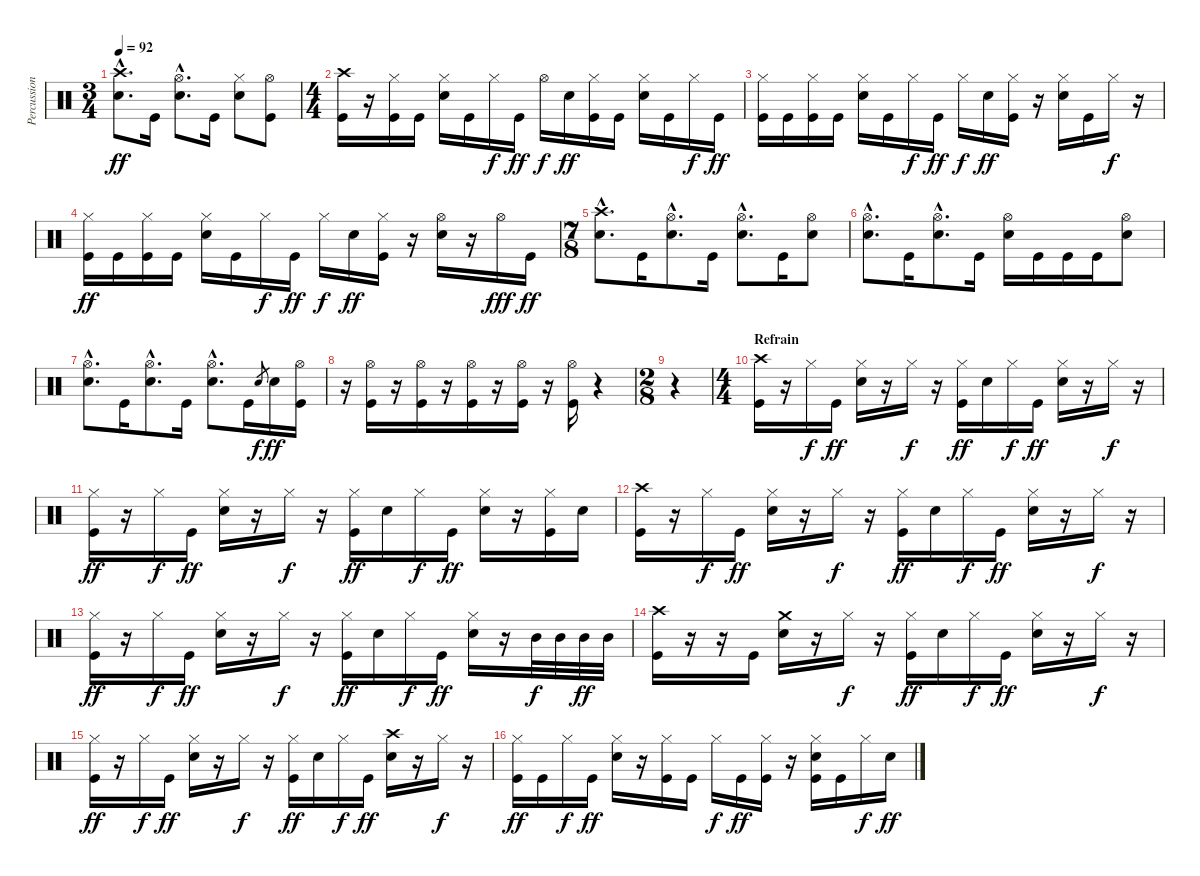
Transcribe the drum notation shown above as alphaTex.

\track ("Percussions" "Percussion") {instrument percussion}
\staff {score}
\articulation defaults
\ts (3 4)
\tempo 92
\clef neutral
\ks c
("Crash high (hit)"{hac} "Snare (hit) 2"{hac}).8{d dy ff} "Kick (hit)".16 ("Hi-Hat (open)"{hac} "Snare (hit) 2"{hac}).8{d} "Kick (hit)".16 ("Hi-Hat (closed)" "Snare (hit) 2").8 ("Hi-Hat (open)" "Kick (hit)").8 |
\ts (4 4)
("Crash high (hit)" "Kick (hit)").16 r.16 ("Hi-Hat (closed)" "Kick (hit)").16 "Kick (hit)".16 ("Hi-Hat (closed)" "Snare (hit) 2").16 "Kick (hit)".16 "Hi-Hat (closed)".16{dy f} "Kick (hit)".16{dy ff} "Hi-Hat (open)".16{dy f} "Snare (hit) 2".16{dy ff} ("Hi-Hat (closed)" "Kick (hit)").16 "Kick (hit)".16 ("Hi-Hat (closed)" "Snare (hit) 2").16 "Kick (hit)".16 "Hi-Hat (closed)".16{dy f} "Kick (hit)".16{dy ff} |
("Hi-Hat (closed)" "Kick (hit)").16 "Kick (hit)".16 ("Hi-Hat (closed)" "Kick (hit)").16 "Kick (hit)".16 ("Hi-Hat (closed)" "Snare (hit) 2").16 "Kick (hit)".16 "Hi-Hat (closed)".16{dy f} "Kick (hit)".16{dy ff} "Hi-Hat (closed)".16{dy f} "Snare (hit) 2".16{dy ff} ("Hi-Hat (closed)" "Kick (hit)").16 r.16 ("Hi-Hat (closed)" "Snare (hit) 2").16 "Kick (hit)".16 "Hi-Hat (closed)".16{dy f} r.16 |
("Hi-Hat (closed)" "Kick (hit)").16{dy ff} "Kick (hit)".16 ("Hi-Hat (closed)" "Kick (hit)").16 "Kick (hit)".16 ("Hi-Hat (closed)" "Snare (hit) 2").16 "Kick (hit)".16 "Hi-Hat (closed)".16{dy f} "Kick (hit)".16{dy ff} "Hi-Hat (closed)".16{dy f} "Snare (hit) 2".16{dy ff} ("Hi-Hat (closed)" "Kick (hit)").16 r.16 ("Hi-Hat (open)" "Snare (hit) 2").16 r.16 "Hi-Hat (open)".16{dy fff} "Kick (hit)".16{dy ff} |
\ts (7 8)
("Crash high (hit)"{hac} "Snare (hit) 2"{hac}).8{d} "Kick (hit)".16 ("Hi-Hat (open)"{hac} "Snare (hit) 2"{hac}).8{d} "Kick (hit)".16 ("Hi-Hat (open)"{hac} "Snare (hit) 2"{hac}).8{d} "Kick (hit)".16 ("Hi-Hat (open)" "Snare (hit) 2").8 |
("Hi-Hat (open)"{hac} "Snare (hit) 2"{hac}).8{d} "Kick (hit)".16 ("Hi-Hat (open)"{hac} "Snare (hit) 2"{hac}).8{d} "Kick (hit)".16 ("Hi-Hat (open)" "Snare (hit) 2").16 "Kick (hit)".16 "Kick (hit)".16 "Kick (hit)".16 ("Hi-Hat (open)" "Snare (hit) 2").8 |
("Hi-Hat (open)"{hac} "Snare (hit) 2"{hac}).8{d} "Kick (hit)".16 ("Hi-Hat (open)"{hac} "Snare (hit) 2"{hac}).8{d} "Kick (hit)".16 ("Hi-Hat (open)"{hac} "Snare (hit) 2"{hac}).8{d} "Kick (hit)".16 "Snare (hit) 2".8{gr dy f} "Snare (hit) 2".16{dy ff} ("Hi-Hat (open)" "Kick (hit)").16 |
r.16 ("Hi-Hat (open)" "Kick (hit)").16 r.16 ("Hi-Hat (open)" "Kick (hit)").16 r.16 ("Hi-Hat (open)" "Kick (hit)").16 r.16 ("Hi-Hat (open)" "Kick (hit)").16 r.16 ("Hi-Hat (open)" "Kick (hit)").16 r.4 |
\ts (2 8)
r.4 |
\ts (4 4)
\section ("" "Refrain")
("Crash high (hit)" "Kick (hit)").16 r.16 "Hi-Hat (closed)".16{dy f} "Kick (hit)".16{dy ff} ("Hi-Hat (closed)" "Snare (hit) 2").16 r.16 "Hi-Hat (closed)".16{dy f} r.16 ("Hi-Hat (closed)" "Kick (hit)").16{dy ff} "Snare (hit) 2".16 "Hi-Hat (closed)".16{dy f} "Kick (hit)".16{dy ff} ("Hi-Hat (closed)" "Snare (hit) 2").16 r.16 "Hi-Hat (closed)".16{dy f} r.16 |
("Hi-Hat (closed)" "Kick (hit)").16{dy ff} r.16 "Hi-Hat (closed)".16{dy f} "Kick (hit)".16{dy ff} ("Hi-Hat (closed)" "Snare (hit) 2").16 r.16 "Hi-Hat (closed)".16{dy f} r.16 ("Hi-Hat (closed)" "Kick (hit)").16{dy ff} "Snare (hit) 2".16 "Hi-Hat (closed)".16{dy f} "Kick (hit)".16{dy ff} ("Hi-Hat (closed)" "Snare (hit) 2").16 r.16 ("Hi-Hat (closed)" "Kick (hit)").16 "Snare (hit) 2".16 |
("Crash high (hit)" "Kick (hit)").16 r.16 "Hi-Hat (closed)".16{dy f} "Kick (hit)".16{dy ff} ("Hi-Hat (closed)" "Snare (hit) 2").16 r.16 "Hi-Hat (closed)".16{dy f} r.16 ("Hi-Hat (closed)" "Kick (hit)").16{dy ff} "Snare (hit) 2".16 "Hi-Hat (closed)".16{dy f} "Kick (hit)".16{dy ff} ("Hi-Hat (closed)" "Snare (hit) 2").16 r.16 "Hi-Hat (closed)".16{dy f} r.16 |
("Hi-Hat (closed)" "Kick (hit)").16{dy ff} r.16 "Hi-Hat (closed)".16{dy f} "Kick (hit)".16{dy ff} ("Hi-Hat (closed)" "Snare (hit) 2").16 r.16 "Hi-Hat (closed)".16{dy f} r.16 ("Hi-Hat (closed)" "Kick (hit)").16{dy ff} "Snare (hit) 2".16 "Hi-Hat (closed)".16{dy f} "Kick (hit)".16{dy ff} ("Hi-Hat (closed)" "Snare (hit) 2").16 r.16 "Mid Tom (hit)".32{dy f} "Mid Tom (hit)".32 "Mid Tom (hit)".32{dy ff} "Mid Tom (hit)".32 |
("Crash high (hit)" "Kick (hit)").16 r.16 r.16 "Kick (hit)".16 ("Crash medium (hit)" "Snare (hit) 2").16 r.16 "Hi-Hat (closed)".16{dy f} r.16 ("Hi-Hat (closed)" "Kick (hit)").16{dy ff} "Snare (hit) 2".16 "Hi-Hat (closed)".16{dy f} "Kick (hit)".16{dy ff} ("Hi-Hat (closed)" "Snare (hit) 2").16 r.16 "Hi-Hat (closed)".16{dy f} r.16 |
("Hi-Hat (closed)" "Kick (hit)").16{dy ff} r.16 "Hi-Hat (closed)".16{dy f} "Kick (hit)".16{dy ff} ("Hi-Hat (closed)" "Snare (hit) 2").16 r.16 "Hi-Hat (closed)".16{dy f} r.16 ("Hi-Hat (closed)" "Kick (hit)").16{dy ff} "Snare (hit) 2".16 "Hi-Hat (closed)".16{dy f} "Kick (hit)".16{dy ff} ("Crash high (hit)" "Snare (hit) 2").16 r.16 "Hi-Hat (closed)".16{dy f} r.16 |
("Hi-Hat (closed)" "Kick (hit)").16{dy ff} "Kick (hit)".16 "Hi-Hat (closed)".16{dy f} "Kick (hit)".16{dy ff} ("Hi-Hat (closed)" "Snare (hit) 2").16 r.16 ("Hi-Hat (closed)" "Kick (hit)").16 "Kick (hit)".16 "Hi-Hat (closed)".16{dy f} "Kick (hit)".16{dy ff} ("Hi-Hat (closed)" "Kick (hit)").16 r.16 ("Hi-Hat (closed)" "Snare (hit) 2" "Kick (hit)").16 "Kick (hit)".16 "Hi-Hat (closed)".16{dy f} "Snare (hit) 2".16{dy ff}
